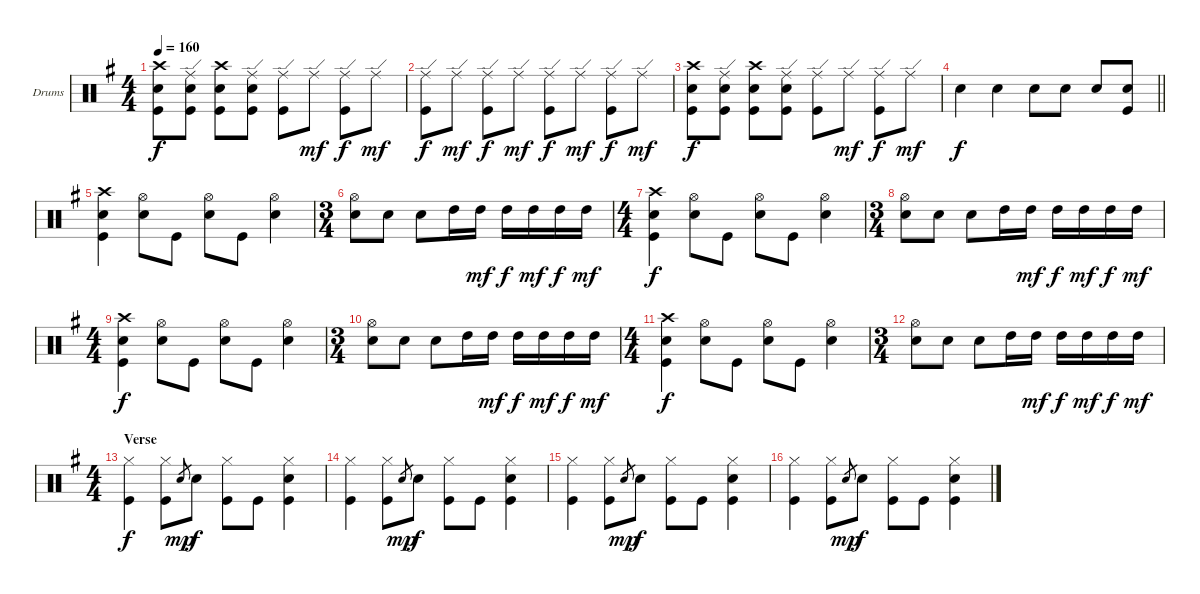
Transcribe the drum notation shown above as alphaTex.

\defaultSystemsLayout 4
\bracketExtendMode groupsimilarinstruments
\firstSystemTrackNameOrientation horizontal
\otherSystemsTrackNameOrientation horizontal
\track ("Drumkit" "Drums") {instrument percussion}
\staff {score}
\articulation defaults
\ts (4 4)
\tempo 160
\clef neutral
\scale
1.04288
\ks g
("Crash high (hit)" "Snare (hit) 2" "Kick (hit)").8{dy f} ("Ride (edge)" "Snare (hit) 2" "Kick (hit)").8 ("Crash high (hit)" "Snare (hit) 2" "Kick (hit)").8 ("Ride (edge)" "Snare (hit) 2" "Kick (hit)").8 ("Ride (edge)" "Kick (hit)").8 "Ride (edge)".8{dy mf} ("Ride (edge)" "Kick (hit)").8{dy f} "Ride (edge)".8{dy mf} |
\scale
0.957125 ("Ride (edge)" "Kick (hit)").8{dy f} "Ride (edge)".8{dy mf} ("Ride (edge)" "Kick (hit)").8{dy f} "Ride (edge)".8{dy mf} ("Ride (edge)" "Kick (hit)").8{dy f} "Ride (edge)".8{dy mf} ("Ride (edge)" "Kick (hit)").8{dy f} "Ride (edge)".8{dy mf} |
\scale
1.04288 ("Crash high (hit)" "Snare (hit) 2" "Kick (hit)").8{dy f} ("Ride (edge)" "Snare (hit) 2" "Kick (hit)").8 ("Crash high (hit)" "Snare (hit) 2" "Kick (hit)").8 ("Ride (edge)" "Snare (hit) 2" "Kick (hit)").8 ("Ride (edge)" "Kick (hit)").8 "Ride (edge)".8{dy mf} ("Ride (edge)" "Kick (hit)").8{dy f} "Ride (edge)".8{dy mf} |
\scale
0.957125
\barLineRight lightlight "Snare (hit) 2".4{dy f} "Snare (hit) 2".4 "Snare (hit) 2".8 "Snare (hit) 2".8 "Snare (hit) 2".8
("Snare (hit) 2" "Kick (hit)").8 |
\scale
1.04288 ("Crash high (hit)" "Snare (hit) 2" "Kick (hit)").4 ("Hi-Hat (open)" "Snare (hit) 2").8 "Kick (hit)".8 ("Hi-Hat (open)" "Snare (hit) 2").8 "Kick (hit)".8 ("Hi-Hat (open)" "Snare (hit) 2").4 |
\ts (3 4)
\scale
0.957125 ("Hi-Hat (open)" "Snare (hit) 2").8 "Snare (hit) 2".8 "Snare (hit) 2".8 "High Tom (hit)".16 "High Tom (hit)".16{dy mf} "High Tom (hit)".16{dy f} "High Tom (hit)".16{dy mf} "High Tom (hit)".16{dy f} "High Tom (hit)".16{dy mf} |
\ts (4 4)
\scale
1.07314 ("Crash high (hit)" "Snare (hit) 2" "Kick (hit)").4{dy f} ("Hi-Hat (open)" "Snare (hit) 2").8 "Kick (hit)".8 ("Hi-Hat (open)" "Snare (hit) 2").8 "Kick (hit)".8 ("Hi-Hat (open)" "Snare (hit) 2").4 |
\ts (3 4)
\scale
0.92686 ("Hi-Hat (open)" "Snare (hit) 2").8 "Snare (hit) 2".8 "Snare (hit) 2".8 "High Tom (hit)".16 "High Tom (hit)".16{dy mf} "High Tom (hit)".16{dy f} "High Tom (hit)".16{dy mf} "High Tom (hit)".16{dy f} "High Tom (hit)".16{dy mf} |
\ts (4 4)
\scale
1.07314 ("Crash high (hit)" "Snare (hit) 2" "Kick (hit)").4{dy f} ("Hi-Hat (open)" "Snare (hit) 2").8 "Kick (hit)".8 ("Hi-Hat (open)" "Snare (hit) 2").8 "Kick (hit)".8 ("Hi-Hat (open)" "Snare (hit) 2").4 |
\ts (3 4)
\scale
0.92686 ("Hi-Hat (open)" "Snare (hit) 2").8 "Snare (hit) 2".8 "Snare (hit) 2".8 "High Tom (hit)".16 "High Tom (hit)".16{dy mf} "High Tom (hit)".16{dy f} "High Tom (hit)".16{dy mf} "High Tom (hit)".16{dy f} "High Tom (hit)".16{dy mf} |
\ts (4 4)
\scale
1.07314 ("Crash high (hit)" "Snare (hit) 2" "Kick (hit)").4{dy f} ("Hi-Hat (open)" "Snare (hit) 2").8 "Kick (hit)".8 ("Hi-Hat (open)" "Snare (hit) 2").8 "Kick (hit)".8 ("Hi-Hat (open)" "Snare (hit) 2").4 |
\ts (3 4)
\scale
0.92686 ("Hi-Hat (open)" "Snare (hit) 2").8 "Snare (hit) 2".8 "Snare (hit) 2".8 "High Tom (hit)".16 "High Tom (hit)".16{dy mf} "High Tom (hit)".16{dy f} "High Tom (hit)".16{dy mf} "High Tom (hit)".16{dy f} "High Tom (hit)".16{dy mf} |
\ts (4 4)
\section ("" "Verse")
\scale
1.07314 ("Hi-Hat (closed)" "Kick (hit)").4{dy f} ("Hi-Hat (closed)" "Kick (hit)").8 "Snare (hit) 2".8{gr dy mp} "Snare (hit) 2".8{dy f} ("Hi-Hat (closed)" "Kick (hit)").8 "Kick (hit)".8 ("Hi-Hat (closed)" "Snare (hit) 2" "Kick (hit)").4 |
\scale
0.92686 ("Hi-Hat (closed)" "Kick (hit)").4 ("Hi-Hat (closed)" "Kick (hit)").8 "Snare (hit) 2".8{gr dy mp} "Snare (hit) 2".8{dy f} ("Hi-Hat (closed)" "Kick (hit)").8 "Kick (hit)".8 ("Hi-Hat (closed)" "Snare (hit) 2" "Kick (hit)").4 |
\scale
1.04288 ("Hi-Hat (closed)" "Kick (hit)").4 ("Hi-Hat (closed)" "Kick (hit)").8 "Snare (hit) 2".8{gr dy mp} "Snare (hit) 2".8{dy f} ("Hi-Hat (closed)" "Kick (hit)").8 "Kick (hit)".8 ("Hi-Hat (closed)" "Snare (hit) 2" "Kick (hit)").4 |
\scale
0.957125 ("Hi-Hat (closed)" "Kick (hit)").4 ("Hi-Hat (closed)" "Kick (hit)").8 "Snare (hit) 2".8{gr dy mp} "Snare (hit) 2".8{dy f} ("Hi-Hat (closed)" "Kick (hit)").8 "Kick (hit)".8 ("Hi-Hat (closed)" "Snare (hit) 2" "Kick (hit)").4
